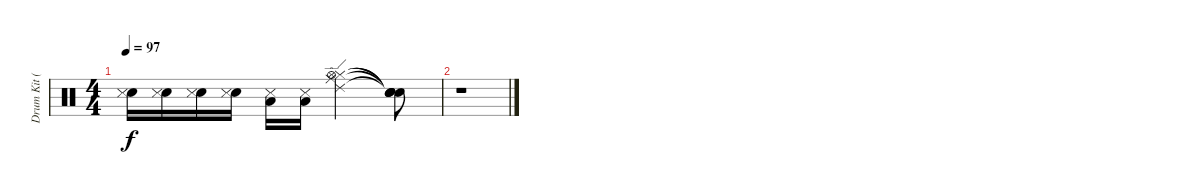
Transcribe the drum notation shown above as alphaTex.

\track ("Drum Kit (Drum Kit 0)" "Drum Kit (") {instrument percussion}
\staff {score}
\articulation defaults
\ts (4 4)
\tempo 97
\clef neutral
\ks c
("Electric Snare (hit)" "Snare (side stick) 3").16{dy f} ("Electric Snare (hit)" "Snare (side stick) 3").16 ("Electric Snare (hit)" "Snare (side stick) 3").16 ("Electric Snare (hit)" "Snare (side stick) 3").16 ("Snare (side stick) 3" "Low Floor Tom (hit)").16 ("Snare (side stick) 3" "Low Floor Tom (hit)").16 ("Hi-Hat (closed)" "Hi-Hat (open)" "Ride (middle)" "Ride (edge) 2").2 ("Snare (hit)"{t} "Snare (hit)"{t} "Snare (hit)"{t} "Snare (hit)"{t}).8 |
r.1
